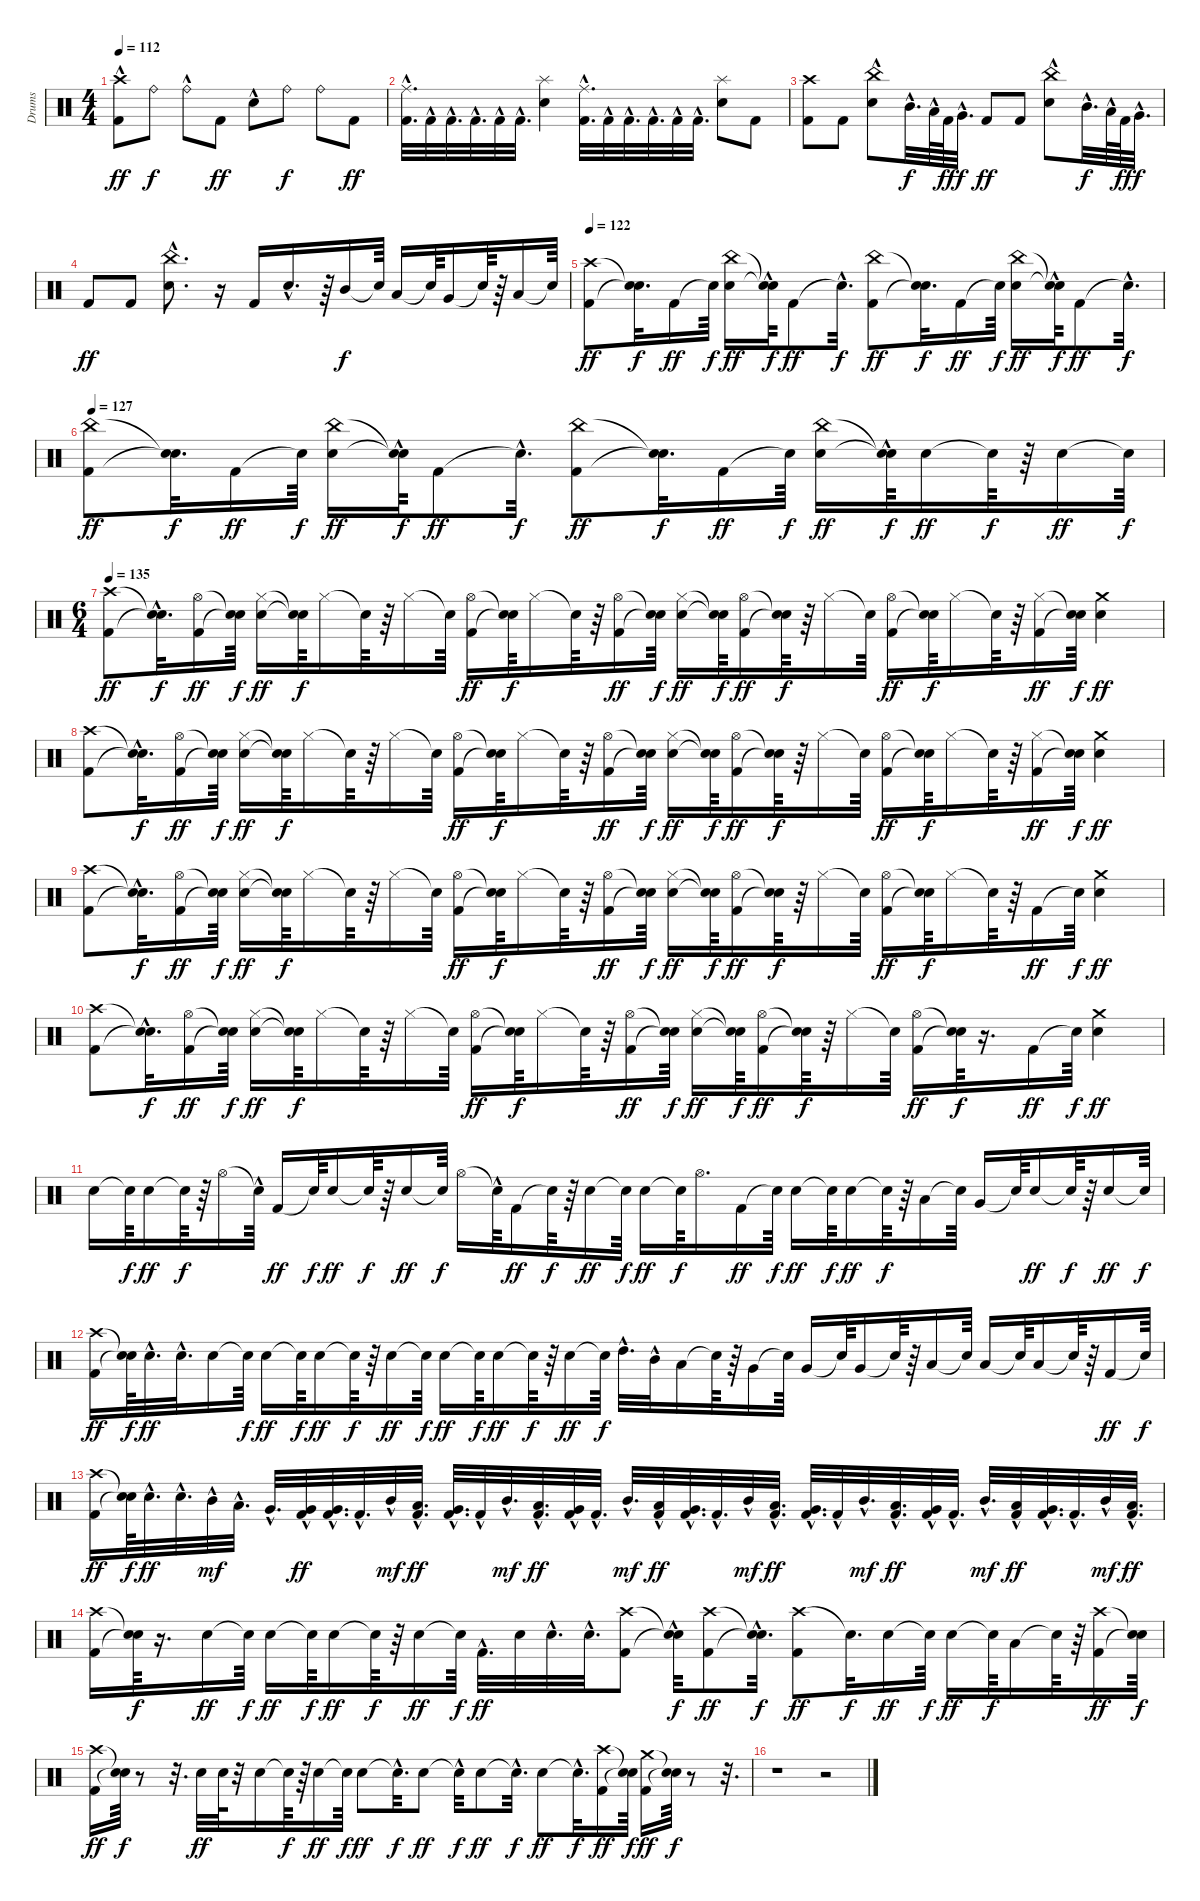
\track ("Drums" "Drums") {instrument percussion}
\staff {score}
\articulation defaults
\ts (4 4)
\tempo 112
\clef neutral
\ks c
("Crash high (hit)" "Kick (hit) 2"{hac}).8{dy ff} "Ride (bell)".8{dy f} "Ride (bell)"{hac}.8 "Kick (hit) 2".8{dy ff} "Electric Snare (hit)"{hac}.8 "Ride (bell)".8{dy f} "Ride (bell)".8 "Kick (hit) 2".8{dy ff} |
("Ride (middle)" "Kick (hit) 2"{hac}).32{d} "Kick (hit) 2"{hac}.32 "Kick (hit) 2"{hac}.32{d} "Kick (hit) 2"{hac}.32{d} "Kick (hit) 2"{hac}.32 "Kick (hit) 2"{hac}.32{d} ("Splash (hit)" "Electric Snare (hit)").4 ("Ride (middle)" "Kick (hit) 2"{hac}).32{d} "Kick (hit) 2"{hac}.32 "Kick (hit) 2"{hac}.32{d} "Kick (hit) 2"{hac}.32{d} "Kick (hit) 2"{hac}.32 "Kick (hit) 2"{hac}.32{d} ("Splash (hit)" "Electric Snare (hit)").8 "Kick (hit) 2".8 |
("Crash high (hit)" "Kick (hit) 2").8 "Kick (hit) 2".8 ("China (hit)"{hac} "Electric Snare (hit)"{hac}).8 "Mid Tom (hit)"{hac}.32{d dy f} "Low Tom (hit)"{hac}.64 "Kick (hit) 2".64{dy ff} "Very Low Tom (hit)"{hac}.32{d dy f} "Kick (hit) 2".8{dy ff} "Kick (hit) 2".8 ("China (hit)"{hac} "Electric Snare (hit)"{hac}).8 "Mid Tom (hit)"{hac}.32{d dy f} "Low Tom (hit)"{hac}.64 "Kick (hit) 2".64{dy ff} "Very Low Tom (hit)"{hac}.32{d dy f} |
"Kick (hit) 2".8{dy ff} "Kick (hit) 2".8 ("China (hit)"{hac} "Electric Snare (hit)"{hac}).8{d} r.16 "Kick (hit) 2".16 "Electric Snare (hit)"{hac}.16{d} r.64 "Mid Tom (hit)".16{dy f} "Snare (hit)"{t}.64 "Low Tom (hit)".16 "Snare (hit)"{t}.64 "Very Low Tom (hit)".16 "Snare (hit)"{t}.64 r.64 "Low Floor Tom (hit)".16 "Snare (hit)"{t}.64 |
\tempo 122
("Crash high (hit)" "Kick (hit) 2").8{dy ff} ("Snare (hit)"{t} "Snare (hit)"{t}).32{d dy f} "Kick (hit) 2".16{dy ff} "Snare (hit)"{t}.64{dy f} ("China (hit)" "Electric Snare (hit)").16{dy ff} ("Snare (hit)"{hac t} "Snare (hit)"{t}).64{dy f} "Kick (hit) 2".8{dy ff} "Snare (hit)"{hac t}.32{d dy f} ("China (hit)" "Kick (hit) 2").8{dy ff} ("Snare (hit)"{t} "Snare (hit)"{t}).32{d dy f} "Kick (hit) 2".16{dy ff} "Snare (hit)"{t}.64{dy f} ("China (hit)" "Electric Snare (hit)").16{dy ff} ("Snare (hit)"{hac t} "Snare (hit)"{t}).64{dy f} "Kick (hit) 2".8{dy ff} "Snare (hit)"{hac t}.32{d dy f} |
\tempo 127
("China (hit)" "Kick (hit) 2").8{dy ff} ("Snare (hit)"{t} "Snare (hit)"{t}).32{d dy f} "Kick (hit) 2".16{dy ff} "Snare (hit)"{t}.64{dy f} ("China (hit)" "Electric Snare (hit)").16{dy ff} ("Snare (hit)"{hac t} "Snare (hit)"{t}).64{dy f} "Kick (hit) 2".8{dy ff} "Snare (hit)"{hac t}.32{d dy f} ("China (hit)" "Kick (hit) 2").8{dy ff} ("Snare (hit)"{t} "Snare (hit)"{t}).32{d dy f} "Kick (hit) 2".16{dy ff} "Snare (hit)"{t}.64{dy f} ("China (hit)" "Electric Snare (hit)").16{dy ff} ("Snare (hit)"{hac t} "Snare (hit)"{t}).64{dy f} "Electric Snare (hit)".16{dy ff} "Snare (hit)"{t}.64{dy f} r.64 "Electric Snare (hit)".16{dy ff} "Snare (hit)"{t}.64{dy f} |
\ts (6 4)
\tempo 135
("Crash high (hit)" "Kick (hit) 2").8{dy ff} ("Snare (hit)"{hac t} "Snare (hit)"{t}).32{d dy f} ("Hi-Hat (open)" "Kick (hit) 2").16{dy ff} ("Snare (hit)"{t} "Snare (hit)"{t}).64{dy f} ("Hi-Hat (closed)" "Electric Snare (hit)").16{dy ff} ("Snare (hit)"{t} "Snare (hit)"{t}).64{dy f} "Hi-Hat (closed)".16 "Snare (hit)"{t}.64 r.64 "Hi-Hat (closed)".16 "Snare (hit)"{t}.64 ("Hi-Hat (open)" "Kick (hit) 2").16{dy ff} ("Snare (hit)"{t} "Snare (hit)"{t}).64{dy f} "Hi-Hat (closed)".16 "Snare (hit)"{t}.64 r.64 ("Hi-Hat (open)" "Kick (hit) 2").16{dy ff} ("Snare (hit)"{t} "Snare (hit)"{t}).64{dy f} ("Hi-Hat (closed)" "Electric Snare (hit)").16{dy ff} ("Snare (hit)"{t} "Snare (hit)"{t}).64{dy f} ("Hi-Hat (open)" "Kick (hit) 2").16{dy ff} ("Snare (hit)"{t} "Snare (hit)"{t}).64{dy f} r.64 "Hi-Hat (closed)".16 "Snare (hit)"{t}.64 ("Hi-Hat (open)" "Kick (hit) 2").16{dy ff} ("Snare (hit)"{t} "Snare (hit)"{t}).64{dy f} "Hi-Hat (closed)".16 "Snare (hit)"{t}.64 r.64 ("Hi-Hat (closed)" "Kick (hit) 2").16{dy ff} ("Snare (hit)"{t} "Snare (hit)"{t}).64{dy f} ("Crash medium (hit)" "Electric Snare (hit)").4{dy ff} |
("Crash high (hit)" "Kick (hit) 2").8 ("Snare (hit)"{hac t} "Snare (hit)"{t}).32{d dy f} ("Hi-Hat (open)" "Kick (hit) 2").16{dy ff} ("Snare (hit)"{t} "Snare (hit)"{t}).64{dy f} ("Hi-Hat (closed)" "Electric Snare (hit)").16{dy ff} ("Snare (hit)"{t} "Snare (hit)"{t}).64{dy f} "Hi-Hat (closed)".16 "Snare (hit)"{t}.64 r.64 "Hi-Hat (closed)".16 "Snare (hit)"{t}.64 ("Hi-Hat (open)" "Kick (hit) 2").16{dy ff} ("Snare (hit)"{t} "Snare (hit)"{t}).64{dy f} "Hi-Hat (closed)".16 "Snare (hit)"{t}.64 r.64 ("Hi-Hat (open)" "Kick (hit) 2").16{dy ff} ("Snare (hit)"{t} "Snare (hit)"{t}).64{dy f} ("Hi-Hat (closed)" "Electric Snare (hit)").16{dy ff} ("Snare (hit)"{t} "Snare (hit)"{t}).64{dy f} ("Hi-Hat (open)" "Kick (hit) 2").16{dy ff} ("Snare (hit)"{t} "Snare (hit)"{t}).64{dy f} r.64 "Hi-Hat (closed)".16 "Snare (hit)"{t}.64 ("Hi-Hat (open)" "Kick (hit) 2").16{dy ff} ("Snare (hit)"{t} "Snare (hit)"{t}).64{dy f} "Hi-Hat (closed)".16 "Snare (hit)"{t}.64 r.64 ("Hi-Hat (closed)" "Kick (hit) 2").16{dy ff} ("Snare (hit)"{t} "Snare (hit)"{t}).64{dy f} ("Crash medium (hit)" "Electric Snare (hit)").4{dy ff} |
("Crash high (hit)" "Kick (hit) 2").8 ("Snare (hit)"{hac t} "Snare (hit)"{t}).32{d dy f} ("Hi-Hat (open)" "Kick (hit) 2").16{dy ff} ("Snare (hit)"{t} "Snare (hit)"{t}).64{dy f} ("Hi-Hat (closed)" "Electric Snare (hit)").16{dy ff} ("Snare (hit)"{t} "Snare (hit)"{t}).64{dy f} "Hi-Hat (closed)".16 "Snare (hit)"{t}.64 r.64 "Hi-Hat (closed)".16 "Snare (hit)"{t}.64 ("Hi-Hat (open)" "Kick (hit) 2").16{dy ff} ("Snare (hit)"{t} "Snare (hit)"{t}).64{dy f} "Hi-Hat (closed)".16 "Snare (hit)"{t}.64 r.64 ("Hi-Hat (open)" "Kick (hit) 2").16{dy ff} ("Snare (hit)"{t} "Snare (hit)"{t}).64{dy f} ("Hi-Hat (closed)" "Electric Snare (hit)").16{dy ff} ("Snare (hit)"{t} "Snare (hit)"{t}).64{dy f} ("Hi-Hat (open)" "Kick (hit) 2").16{dy ff} ("Snare (hit)"{t} "Snare (hit)"{t}).64{dy f} r.64 "Hi-Hat (closed)".16 "Snare (hit)"{t}.64 ("Hi-Hat (open)" "Kick (hit) 2").16{dy ff} ("Snare (hit)"{t} "Snare (hit)"{t}).64{dy f} "Hi-Hat (closed)".16 "Snare (hit)"{t}.64 r.64 "Kick (hit) 2".16{dy ff} "Snare (hit)"{t}.64{dy f} ("Crash medium (hit)" "Electric Snare (hit)").4{dy ff} |
("Crash high (hit)" "Kick (hit) 2").8 ("Snare (hit)"{hac t} "Snare (hit)"{t}).32{d dy f} ("Hi-Hat (open)" "Kick (hit) 2").16{dy ff} ("Snare (hit)"{t} "Snare (hit)"{t}).64{dy f} ("Hi-Hat (closed)" "Electric Snare (hit)").16{dy ff} ("Snare (hit)"{t} "Snare (hit)"{t}).64{dy f} "Hi-Hat (closed)".16 "Snare (hit)"{t}.64 r.64 "Hi-Hat (closed)".16 "Snare (hit)"{t}.64 ("Hi-Hat (open)" "Kick (hit) 2").16{dy ff} ("Snare (hit)"{t} "Snare (hit)"{t}).64{dy f} "Hi-Hat (closed)".16 "Snare (hit)"{t}.64 r.64 ("Hi-Hat (open)" "Kick (hit) 2").16{dy ff} ("Snare (hit)"{t} "Snare (hit)"{t}).64{dy f} ("Hi-Hat (closed)" "Electric Snare (hit)").16{dy ff} ("Snare (hit)"{t} "Snare (hit)"{t}).64{dy f} ("Hi-Hat (open)" "Kick (hit) 2").16{dy ff} ("Snare (hit)"{t} "Snare (hit)"{t}).64{dy f} r.64 "Hi-Hat (closed)".16 "Snare (hit)"{t}.64 ("Hi-Hat (open)" "Kick (hit) 2").16{dy ff} ("Snare (hit)"{t} "Snare (hit)"{t}).64{dy f} r.16{d} "Kick (hit) 2".16{dy ff} "Snare (hit)"{t}.64{dy f} ("Crash medium (hit)" "Electric Snare (hit)").4{dy ff} |
"Electric Snare (hit)".16 "Snare (hit)"{t}.64{dy f} "Electric Snare (hit)".16{dy ff} "Snare (hit)"{t}.64{dy f} r.64 "Hi-Hat (open)".16 "Snare (hit)"{hac t}.64 "Kick (hit) 2".16{dy ff} "Snare (hit)"{t}.64{dy f} "Electric Snare (hit)".16{dy ff} "Snare (hit)"{t}.64{dy f} r.64 "Electric Snare (hit)".16{dy ff} "Snare (hit)"{t}.64{dy f} "Hi-Hat (open)".16 "Snare (hit)"{hac t}.64 "Kick (hit) 2".16{dy ff} "Snare (hit)"{t}.64{dy f} r.64 "Electric Snare (hit)".16{dy ff} "Snare (hit)"{t}.64{dy f} "Electric Snare (hit)".16{dy ff} "Snare (hit)"{t}.64{dy f} "Hi-Hat (open)".16{d} "Kick (hit) 2".16{dy ff} "Snare (hit)"{t}.64{dy f} "Electric Snare (hit)".16{dy ff} "Snare (hit)"{t}.64{dy f} "Electric Snare (hit)".16{dy ff} "Snare (hit)"{t}.64{dy f} r.64 "Low Tom (hit)".16 "Snare (hit)"{t}.64 "Very Low Tom (hit)".16 "Snare (hit)"{t}.64 "Electric Snare (hit)".16{dy ff} "Snare (hit)"{t}.64{dy f} r.64 "Electric Snare (hit)".16{dy ff} "Snare (hit)"{t}.64{dy f} |
("Crash high (hit)" "Kick (hit) 2").16{dy ff} ("Snare (hit)"{t} "Snare (hit)"{t}).64{dy f} "Electric Snare (hit)"{hac}.32{d dy ff} "Electric Snare (hit)"{hac}.32{d} "Electric Snare (hit)".16 "Snare (hit)"{t}.64{dy f} "Electric Snare (hit)".16{dy ff} "Snare (hit)"{t}.64{dy f} "Electric Snare (hit)".16{dy ff} "Snare (hit)"{t}.64{dy f} r.64 "Electric Snare (hit)".16{dy ff} "Snare (hit)"{t}.64{dy f} "Electric Snare (hit)".16{dy ff} "Snare (hit)"{t}.64{dy f} "Electric Snare (hit)".16{dy ff} "Snare (hit)"{t}.64{dy f} r.64 "Electric Snare (hit)".16{dy ff} "Snare (hit)"{t}.64{dy f} "High Tom (hit)"{hac}.32{d} "Mid Tom (hit)"{hac}.32 "Low Tom (hit)".16 "Snare (hit)"{t}.64 r.64 "Very Low Tom (hit)".16 "Snare (hit)"{t}.64 "Very Low Tom (hit)".16 "Snare (hit)"{t}.64 "Very Low Tom (hit)".16 "Snare (hit)"{t}.64 r.64 "Low Floor Tom (hit)".16 "Snare (hit)"{t}.64 "Low Floor Tom (hit)".16 "Snare (hit)"{t}.64 "Low Floor Tom (hit)".16 "Snare (hit)"{t}.64 r.64 "Kick (hit) 2".16{dy ff} "Snare (hit)"{t}.64{dy f} |
("Crash high (hit)" "Kick (hit) 2").16{dy ff} ("Snare (hit)"{t} "Snare (hit)"{t}).64{dy f} "Electric Snare (hit)"{hac}.32{d dy ff} "Electric Snare (hit)"{hac}.32{d} "Mid Tom (hit)"{hac}.32{dy mf} "Low Tom (hit)"{hac}.32{d} "Very Low Tom (hit)"{hac}.32{d} ("Very Low Tom (hit)"{hac} "Kick (hit) 2"{hac}).32{dy ff} ("Very Low Tom (hit)"{hac} "Kick (hit) 2"{hac}).32{d} "Kick (hit) 2"{hac}.32{d} "Mid Tom (hit)"{hac}.32{dy mf} ("Low Tom (hit)"{hac} "Kick (hit) 2"{hac}).32{d dy ff} ("Very Low Tom (hit)"{hac} "Kick (hit) 2"{hac}).32{d} "Kick (hit) 2"{hac}.32 "Mid Tom (hit)"{hac}.32{d dy mf} ("Low Tom (hit)"{hac} "Kick (hit) 2"{hac}).32{d dy ff} ("Very Low Tom (hit)"{hac} "Kick (hit) 2"{hac}).32 "Kick (hit) 2"{hac}.32{d} "Mid Tom (hit)"{hac}.32{d dy mf} ("Low Tom (hit)"{hac} "Kick (hit) 2"{hac}).32{dy ff} ("Very Low Tom (hit)"{hac} "Kick (hit) 2"{hac}).32{d} "Kick (hit) 2"{hac}.32{d} "Mid Tom (hit)"{hac}.32{dy mf} ("Low Tom (hit)"{hac} "Kick (hit) 2"{hac}).32{d dy ff} ("Very Low Tom (hit)"{hac} "Kick (hit) 2"{hac}).32{d} "Kick (hit) 2"{hac}.32 "Mid Tom (hit)"{hac}.32{d dy mf} ("Low Tom (hit)"{hac} "Kick (hit) 2"{hac}).32{d dy ff} ("Very Low Tom (hit)"{hac} "Kick (hit) 2"{hac}).32 "Kick (hit) 2"{hac}.32{d} "Mid Tom (hit)"{hac}.32{d dy mf} ("Low Tom (hit)"{hac} "Kick (hit) 2"{hac}).32{dy ff} ("Very Low Tom (hit)"{hac} "Kick (hit) 2"{hac}).32{d} "Kick (hit) 2"{hac}.32{d} "Mid Tom (hit)"{hac}.32{dy mf} ("Low Tom (hit)"{hac} "Kick (hit) 2"{hac}).32{d dy ff} |
("Crash high (hit)" "Kick (hit) 2").16 ("Snare (hit)"{t} "Snare (hit)"{t}).64{dy f} r.16{d} "Electric Snare (hit)".16{dy ff} "Snare (hit)"{t}.64{dy f} "Electric Snare (hit)".16{dy ff} "Snare (hit)"{t}.64{dy f} "Electric Snare (hit)".16{dy ff} "Snare (hit)"{t}.64{dy f} r.64 "Electric Snare (hit)".16{dy ff} "Snare (hit)"{t}.64{dy f} "Kick (hit) 2"{hac}.32{d dy ff} "Electric Snare (hit)".32 "Electric Snare (hit)"{hac}.32{d} "Electric Snare (hit)"{hac}.32{d} ("Crash high (hit)" "Kick (hit) 2").8 ("Snare (hit)"{hac t} "Snare (hit)"{hac t}).32{dy f} ("Crash high (hit)" "Kick (hit) 2").8{dy ff} ("Snare (hit)"{hac t} "Snare (hit)"{hac t}).32{d dy f} ("Crash high (hit)" "Kick (hit) 2").8{dy ff} "Snare (hit)"{t}.32{d dy f} "Electric Snare (hit)".16{dy ff} "Snare (hit)"{t}.64{dy f} "Electric Snare (hit)".16{dy ff} "Snare (hit)"{t}.64{dy f} "Low Tom (hit)".16 "Snare (hit)"{t}.64 r.64 ("Crash high (hit)" "Kick (hit) 2").16{dy ff} ("Snare (hit)"{t} "Snare (hit)"{t}).64{dy f} |
("Crash high (hit)" "Kick (hit) 2").16{dy ff} ("Snare (hit)"{t} "Snare (hit)"{t}).64{dy f} r.8 r.32{d} "Electric Snare (hit)".32{dy ff} "Electric Snare (hit)".64 r.32 "Electric Snare (hit)".16 "Snare (hit)"{t}.64{dy f} r.64 "Electric Snare (hit)".16{dy ff} "Snare (hit)"{t}.64{dy f} "Electric Snare (hit)".8{dy ff} "Snare (hit)"{hac t}.32{d dy f} "Electric Snare (hit)".8{dy ff} "Snare (hit)"{hac t}.32{dy f} "Electric Snare (hit)".8{dy ff} "Snare (hit)"{hac t}.32{d dy f} "Electric Snare (hit)".8{dy ff} "Snare (hit)"{hac t}.32{d dy f} ("Crash high (hit)" "Kick (hit) 2").16{dy ff} ("Snare (hit)"{t} "Snare (hit)"{t}).64{dy f} ("Crash medium (hit)" "Kick (hit) 2").16{dy ff} ("Snare (hit)"{t} "Snare (hit)"{t}).64{dy f} r.8 r.32{d} |
r.1 r.2
